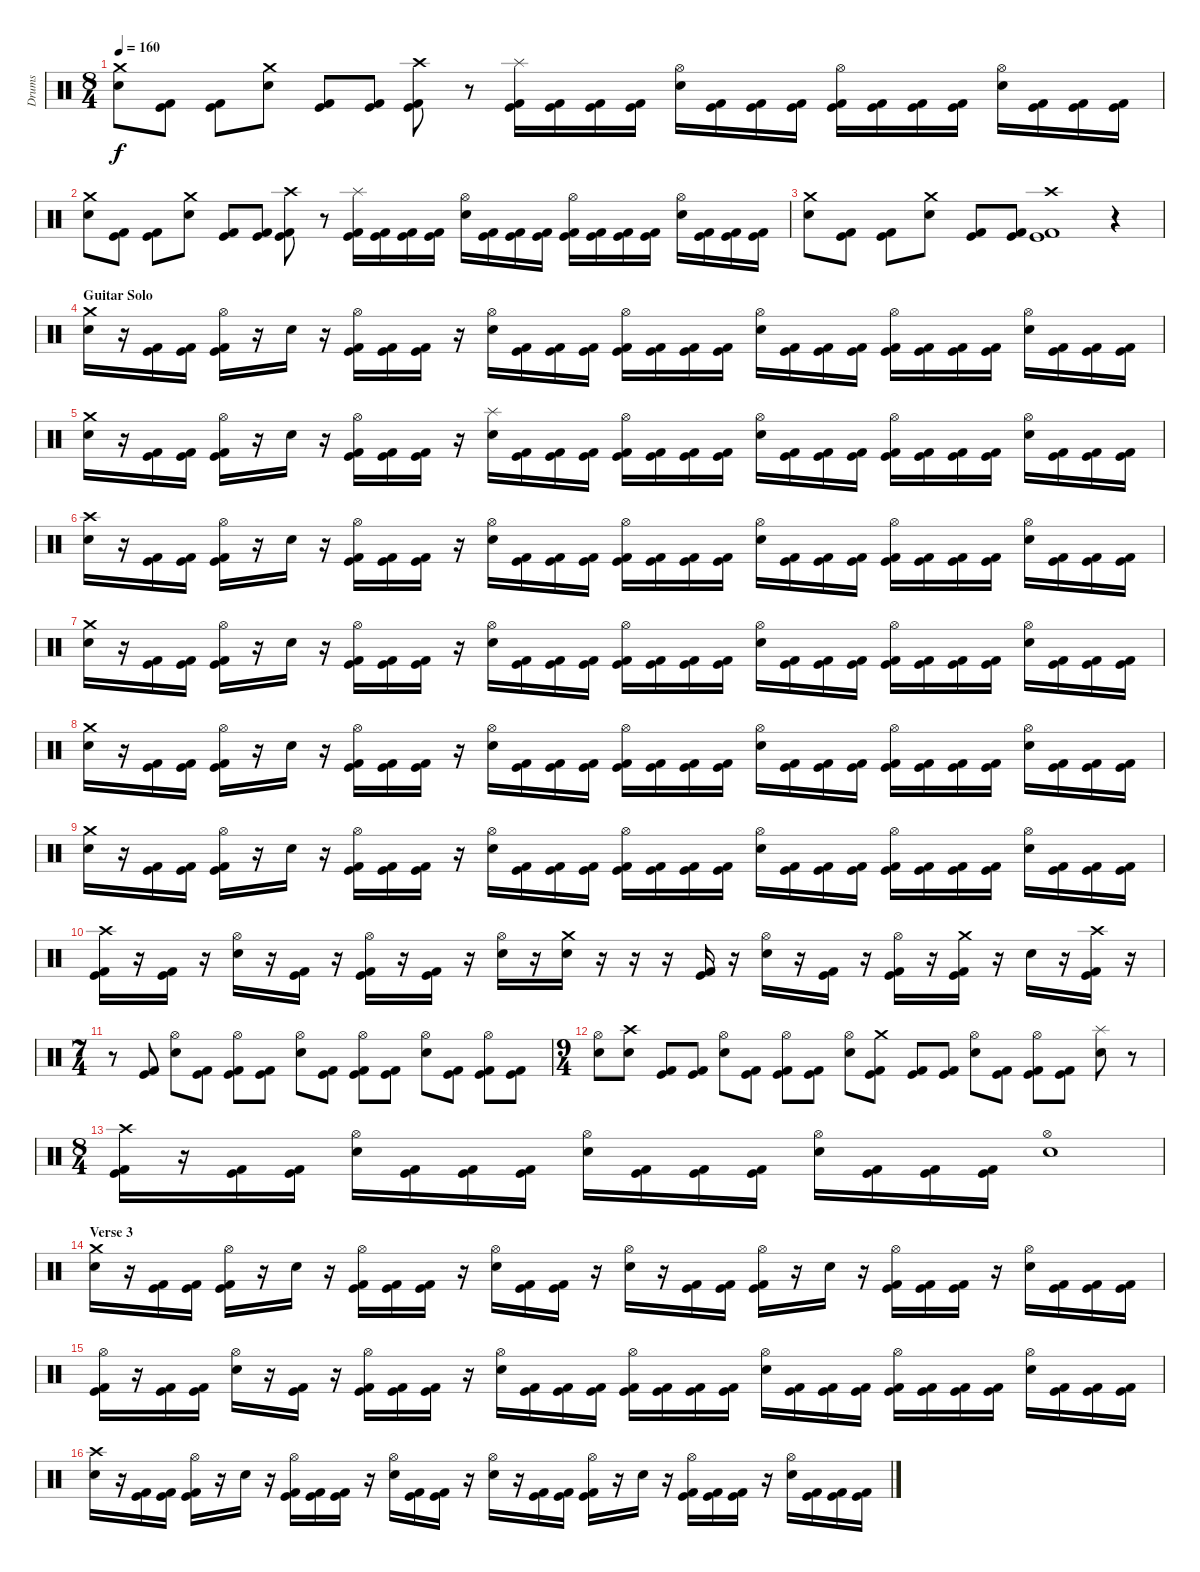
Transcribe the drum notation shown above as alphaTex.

\track ("Drums" "Drums") {instrument percussion}
\staff {score}
\articulation defaults
\ts (8 4)
\tempo 160
\clef neutral
\ks c
("Crash medium (hit)" "Electric Snare (hit)").8{dy f} ("Kick (hit)" "Kick (hit) 2").8 ("Kick (hit)" "Kick (hit) 2").8 ("Crash medium (hit)" "Electric Snare (hit)").8 ("Kick (hit)" "Kick (hit) 2").8 ("Kick (hit)" "Kick (hit) 2").8 ("Crash high (hit)" "Kick (hit)" "Kick (hit) 2").8 r.8 ("Splash (hit)" "Kick (hit)" "Kick (hit) 2").16 ("Kick (hit)" "Kick (hit) 2").16 ("Kick (hit)" "Kick (hit) 2").16 ("Kick (hit)" "Kick (hit) 2").16 ("Hi-Hat (open)" "Electric Snare (hit)").16 ("Kick (hit)" "Kick (hit) 2").16 ("Kick (hit)" "Kick (hit) 2").16 ("Kick (hit)" "Kick (hit) 2").16 ("Hi-Hat (open)" "Kick (hit)" "Kick (hit) 2").16 ("Kick (hit)" "Kick (hit) 2").16 ("Kick (hit)" "Kick (hit) 2").16 ("Kick (hit)" "Kick (hit) 2").16 ("Hi-Hat (open)" "Electric Snare (hit)").16 ("Kick (hit)" "Kick (hit) 2").16 ("Kick (hit)" "Kick (hit) 2").16 ("Kick (hit)" "Kick (hit) 2").16 |
("Crash medium (hit)" "Electric Snare (hit)").8 ("Kick (hit)" "Kick (hit) 2").8 ("Kick (hit)" "Kick (hit) 2").8 ("Crash medium (hit)" "Electric Snare (hit)").8 ("Kick (hit)" "Kick (hit) 2").8 ("Kick (hit)" "Kick (hit) 2").8 ("Crash high (hit)" "Kick (hit)" "Kick (hit) 2").8 r.8 ("Splash (hit)" "Kick (hit)" "Kick (hit) 2").16 ("Kick (hit)" "Kick (hit) 2").16 ("Kick (hit)" "Kick (hit) 2").16 ("Kick (hit)" "Kick (hit) 2").16 ("Hi-Hat (open)" "Electric Snare (hit)").16 ("Kick (hit)" "Kick (hit) 2").16 ("Kick (hit)" "Kick (hit) 2").16 ("Kick (hit)" "Kick (hit) 2").16 ("Hi-Hat (open)" "Kick (hit)" "Kick (hit) 2").16 ("Kick (hit)" "Kick (hit) 2").16 ("Kick (hit)" "Kick (hit) 2").16 ("Kick (hit)" "Kick (hit) 2").16 ("Hi-Hat (open)" "Electric Snare (hit)").16 ("Kick (hit)" "Kick (hit) 2").16 ("Kick (hit)" "Kick (hit) 2").16 ("Kick (hit)" "Kick (hit) 2").16 |
("Crash medium (hit)" "Electric Snare (hit)").8 ("Kick (hit)" "Kick (hit) 2").8 ("Kick (hit)" "Kick (hit) 2").8 ("Crash medium (hit)" "Electric Snare (hit)").8 ("Kick (hit)" "Kick (hit) 2").8 ("Kick (hit)" "Kick (hit) 2").8 ("Crash high (hit)" "Kick (hit)" "Kick (hit) 2").1 r.4 |
\section ("" "Guitar Solo")
("Crash medium (hit)" "Electric Snare (hit)").16 r.16 ("Kick (hit)" "Kick (hit) 2").16 ("Kick (hit)" "Kick (hit) 2").16 ("Hi-Hat (open)" "Kick (hit)" "Kick (hit) 2").16 r.16 "Electric Snare (hit)".16 r.16 ("Hi-Hat (open)" "Kick (hit)" "Kick (hit) 2").16 ("Kick (hit)" "Kick (hit) 2").16 ("Kick (hit)" "Kick (hit) 2").16 r.16 ("Hi-Hat (open)" "Electric Snare (hit)").16 ("Kick (hit)" "Kick (hit) 2").16 ("Kick (hit)" "Kick (hit) 2").16 ("Kick (hit) 2" "Kick (hit)").16 ("Hi-Hat (open)" "Kick (hit) 2" "Kick (hit)").16 ("Kick (hit) 2" "Kick (hit)").16 ("Kick (hit)" "Kick (hit) 2").16 ("Kick (hit)" "Kick (hit) 2").16 ("Hi-Hat (open)" "Electric Snare (hit)").16 ("Kick (hit) 2" "Kick (hit)").16 ("Kick (hit) 2" "Kick (hit)").16 ("Kick (hit) 2" "Kick (hit)").16 ("Hi-Hat (open)" "Kick (hit) 2" "Kick (hit)").16 ("Kick (hit) 2" "Kick (hit)").16 ("Kick (hit)" "Kick (hit) 2").16 ("Kick (hit) 2" "Kick (hit)").16 ("Hi-Hat (open)" "Electric Snare (hit)").16 ("Kick (hit)" "Kick (hit) 2").16 ("Kick (hit)" "Kick (hit) 2").16 ("Kick (hit)" "Kick (hit) 2").16 |
("Crash medium (hit)" "Electric Snare (hit)").16 r.16 ("Kick (hit)" "Kick (hit) 2").16 ("Kick (hit)" "Kick (hit) 2").16 ("Hi-Hat (open)" "Kick (hit)" "Kick (hit) 2").16 r.16 "Electric Snare (hit)".16 r.16 ("Hi-Hat (open)" "Kick (hit)" "Kick (hit) 2").16 ("Kick (hit)" "Kick (hit) 2").16 ("Kick (hit)" "Kick (hit) 2").16 r.16 ("Splash (hit)" "Electric Snare (hit)").16 ("Kick (hit)" "Kick (hit) 2").16 ("Kick (hit)" "Kick (hit) 2").16 ("Kick (hit) 2" "Kick (hit)").16 ("Hi-Hat (open)" "Kick (hit) 2" "Kick (hit)").16 ("Kick (hit) 2" "Kick (hit)").16 ("Kick (hit)" "Kick (hit) 2").16 ("Kick (hit)" "Kick (hit) 2").16 ("Hi-Hat (open)" "Electric Snare (hit)").16 ("Kick (hit) 2" "Kick (hit)").16 ("Kick (hit) 2" "Kick (hit)").16 ("Kick (hit) 2" "Kick (hit)").16 ("Hi-Hat (open)" "Kick (hit) 2" "Kick (hit)").16 ("Kick (hit) 2" "Kick (hit)").16 ("Kick (hit)" "Kick (hit) 2").16 ("Kick (hit) 2" "Kick (hit)").16 ("Hi-Hat (open)" "Electric Snare (hit)").16 ("Kick (hit)" "Kick (hit) 2").16 ("Kick (hit)" "Kick (hit) 2").16 ("Kick (hit)" "Kick (hit) 2").16 |
("Crash high (hit)" "Electric Snare (hit)").16 r.16 ("Kick (hit)" "Kick (hit) 2").16 ("Kick (hit)" "Kick (hit) 2").16 ("Hi-Hat (open)" "Kick (hit)" "Kick (hit) 2").16 r.16 "Electric Snare (hit)".16 r.16 ("Hi-Hat (open)" "Kick (hit)" "Kick (hit) 2").16 ("Kick (hit)" "Kick (hit) 2").16 ("Kick (hit)" "Kick (hit) 2").16 r.16 ("Hi-Hat (open)" "Electric Snare (hit)").16 ("Kick (hit)" "Kick (hit) 2").16 ("Kick (hit)" "Kick (hit) 2").16 ("Kick (hit) 2" "Kick (hit)").16 ("Hi-Hat (open)" "Kick (hit) 2" "Kick (hit)").16 ("Kick (hit) 2" "Kick (hit)").16 ("Kick (hit)" "Kick (hit) 2").16 ("Kick (hit)" "Kick (hit) 2").16 ("Hi-Hat (open)" "Electric Snare (hit)").16 ("Kick (hit) 2" "Kick (hit)").16 ("Kick (hit) 2" "Kick (hit)").16 ("Kick (hit) 2" "Kick (hit)").16 ("Hi-Hat (open)" "Kick (hit) 2" "Kick (hit)").16 ("Kick (hit) 2" "Kick (hit)").16 ("Kick (hit)" "Kick (hit) 2").16 ("Kick (hit) 2" "Kick (hit)").16 ("Hi-Hat (open)" "Electric Snare (hit)").16 ("Kick (hit)" "Kick (hit) 2").16 ("Kick (hit)" "Kick (hit) 2").16 ("Kick (hit)" "Kick (hit) 2").16 |
("Crash medium (hit)" "Electric Snare (hit)").16 r.16 ("Kick (hit)" "Kick (hit) 2").16 ("Kick (hit)" "Kick (hit) 2").16 ("Hi-Hat (open)" "Kick (hit)" "Kick (hit) 2").16 r.16 "Electric Snare (hit)".16 r.16 ("Hi-Hat (open)" "Kick (hit)" "Kick (hit) 2").16 ("Kick (hit)" "Kick (hit) 2").16 ("Kick (hit)" "Kick (hit) 2").16 r.16 ("Hi-Hat (open)" "Electric Snare (hit)").16 ("Kick (hit)" "Kick (hit) 2").16 ("Kick (hit)" "Kick (hit) 2").16 ("Kick (hit) 2" "Kick (hit)").16 ("Hi-Hat (open)" "Kick (hit) 2" "Kick (hit)").16 ("Kick (hit) 2" "Kick (hit)").16 ("Kick (hit)" "Kick (hit) 2").16 ("Kick (hit)" "Kick (hit) 2").16 ("Hi-Hat (open)" "Electric Snare (hit)").16 ("Kick (hit) 2" "Kick (hit)").16 ("Kick (hit) 2" "Kick (hit)").16 ("Kick (hit) 2" "Kick (hit)").16 ("Hi-Hat (open)" "Kick (hit) 2" "Kick (hit)").16 ("Kick (hit) 2" "Kick (hit)").16 ("Kick (hit)" "Kick (hit) 2").16 ("Kick (hit) 2" "Kick (hit)").16 ("Hi-Hat (open)" "Electric Snare (hit)").16 ("Kick (hit)" "Kick (hit) 2").16 ("Kick (hit)" "Kick (hit) 2").16 ("Kick (hit)" "Kick (hit) 2").16 |
("Crash medium (hit)" "Electric Snare (hit)").16 r.16 ("Kick (hit)" "Kick (hit) 2").16 ("Kick (hit)" "Kick (hit) 2").16 ("Hi-Hat (open)" "Kick (hit)" "Kick (hit) 2").16 r.16 "Electric Snare (hit)".16 r.16 ("Hi-Hat (open)" "Kick (hit)" "Kick (hit) 2").16 ("Kick (hit)" "Kick (hit) 2").16 ("Kick (hit)" "Kick (hit) 2").16 r.16 ("Hi-Hat (open)" "Electric Snare (hit)").16 ("Kick (hit)" "Kick (hit) 2").16 ("Kick (hit)" "Kick (hit) 2").16 ("Kick (hit) 2" "Kick (hit)").16 ("Hi-Hat (open)" "Kick (hit) 2" "Kick (hit)").16 ("Kick (hit) 2" "Kick (hit)").16 ("Kick (hit)" "Kick (hit) 2").16 ("Kick (hit)" "Kick (hit) 2").16 ("Hi-Hat (open)" "Electric Snare (hit)").16 ("Kick (hit) 2" "Kick (hit)").16 ("Kick (hit) 2" "Kick (hit)").16 ("Kick (hit) 2" "Kick (hit)").16 ("Hi-Hat (open)" "Kick (hit) 2" "Kick (hit)").16 ("Kick (hit) 2" "Kick (hit)").16 ("Kick (hit)" "Kick (hit) 2").16 ("Kick (hit) 2" "Kick (hit)").16 ("Hi-Hat (open)" "Electric Snare (hit)").16 ("Kick (hit)" "Kick (hit) 2").16 ("Kick (hit)" "Kick (hit) 2").16 ("Kick (hit)" "Kick (hit) 2").16 |
("Crash medium (hit)" "Electric Snare (hit)").16 r.16 ("Kick (hit)" "Kick (hit) 2").16 ("Kick (hit)" "Kick (hit) 2").16 ("Hi-Hat (open)" "Kick (hit)" "Kick (hit) 2").16 r.16 "Electric Snare (hit)".16 r.16 ("Hi-Hat (open)" "Kick (hit)" "Kick (hit) 2").16 ("Kick (hit)" "Kick (hit) 2").16 ("Kick (hit)" "Kick (hit) 2").16 r.16 ("Hi-Hat (open)" "Electric Snare (hit)").16 ("Kick (hit)" "Kick (hit) 2").16 ("Kick (hit)" "Kick (hit) 2").16 ("Kick (hit) 2" "Kick (hit)").16 ("Hi-Hat (open)" "Kick (hit) 2" "Kick (hit)").16 ("Kick (hit) 2" "Kick (hit)").16 ("Kick (hit)" "Kick (hit) 2").16 ("Kick (hit)" "Kick (hit) 2").16 ("Hi-Hat (open)" "Electric Snare (hit)").16 ("Kick (hit) 2" "Kick (hit)").16 ("Kick (hit) 2" "Kick (hit)").16 ("Kick (hit) 2" "Kick (hit)").16 ("Hi-Hat (open)" "Kick (hit) 2" "Kick (hit)").16 ("Kick (hit) 2" "Kick (hit)").16 ("Kick (hit)" "Kick (hit) 2").16 ("Kick (hit) 2" "Kick (hit)").16 ("Hi-Hat (open)" "Electric Snare (hit)").16 ("Kick (hit)" "Kick (hit) 2").16 ("Kick (hit)" "Kick (hit) 2").16 ("Kick (hit)" "Kick (hit) 2").16 |
("Crash high (hit)" "Kick (hit)" "Kick (hit) 2").16 r.16 ("Kick (hit)" "Kick (hit) 2").16 r.16 ("Hi-Hat (open)" "Electric Snare (hit)").16 r.16 ("Kick (hit)" "Kick (hit) 2").16 r.16 ("Hi-Hat (open)" "Kick (hit)" "Kick (hit) 2").16 r.16 ("Kick (hit)" "Kick (hit) 2").16 r.16 ("Hi-Hat (open)" "Electric Snare (hit)").16 r.16 ("Crash medium (hit)" "Electric Snare (hit)").16 r.16 r.16 r.16 ("Kick (hit) 2" "Kick (hit)").16 r.16 ("Hi-Hat (open)" "Electric Snare (hit)").16 r.16 ("Kick (hit)" "Kick (hit) 2").16 r.16 ("Hi-Hat (open)" "Kick (hit)" "Kick (hit) 2").16 r.16 ("Crash medium (hit)" "Kick (hit)" "Kick (hit) 2").16 r.16 "Electric Snare (hit)".16 r.16 ("Crash high (hit)" "Kick (hit) 2" "Kick (hit)").16 r.16 |
\ts (7 4)
r.8 ("Kick (hit)" "Kick (hit) 2").8 ("Hi-Hat (open)" "Electric Snare (hit)").8 ("Kick (hit)" "Kick (hit) 2").8 ("Hi-Hat (open)" "Kick (hit)" "Kick (hit) 2").8 ("Kick (hit)" "Kick (hit) 2").8 ("Hi-Hat (open)" "Electric Snare (hit)").8 ("Kick (hit)" "Kick (hit) 2").8 ("Hi-Hat (open)" "Kick (hit)" "Kick (hit) 2").8 ("Kick (hit)" "Kick (hit) 2").8 ("Hi-Hat (open)" "Electric Snare (hit)").8 ("Kick (hit)" "Kick (hit) 2").8 ("Hi-Hat (open)" "Kick (hit)" "Kick (hit) 2").8 ("Kick (hit)" "Kick (hit) 2").8 |
\ts (9 4)
("Hi-Hat (open)" "Electric Snare (hit)").8 ("Crash high (hit)" "Electric Snare (hit)").8 ("Kick (hit)" "Kick (hit) 2").8 ("Kick (hit)" "Kick (hit) 2").8 ("Hi-Hat (open)" "Electric Snare (hit)").8 ("Kick (hit)" "Kick (hit) 2").8 ("Hi-Hat (open)" "Kick (hit)" "Kick (hit) 2").8 ("Kick (hit)" "Kick (hit) 2").8 ("Hi-Hat (open)" "Electric Snare (hit)").8 ("Crash medium (hit)" "Kick (hit)" "Kick (hit) 2").8 ("Kick (hit)" "Kick (hit) 2").8 ("Kick (hit)" "Kick (hit) 2").8 ("Hi-Hat (open)" "Electric Snare (hit)").8 ("Kick (hit)" "Kick (hit) 2").8 ("Hi-Hat (open)" "Kick (hit)" "Kick (hit) 2").8 ("Kick (hit)" "Kick (hit) 2").8 ("Splash (hit)" "Electric Snare (hit)").8 r.8 |
\ts (8 4)
("Crash high (hit)" "Kick (hit)" "Kick (hit) 2").16 r.16 ("Kick (hit)" "Kick (hit) 2").16 ("Kick (hit)" "Kick (hit) 2").16 ("Hi-Hat (open)" "Electric Snare (hit)").16 ("Kick (hit)" "Kick (hit) 2").16 ("Kick (hit)" "Kick (hit) 2").16 ("Kick (hit)" "Kick (hit) 2").16 ("Hi-Hat (open)" "Electric Snare (hit)").16 ("Kick (hit)" "Kick (hit) 2").16 ("Kick (hit)" "Kick (hit) 2").16 ("Kick (hit)" "Kick (hit) 2").16 ("Hi-Hat (open)" "Electric Snare (hit)").16 ("Kick (hit)" "Kick (hit) 2").16 ("Kick (hit)" "Kick (hit) 2").16 ("Kick (hit)" "Kick (hit) 2").16 ("Hi-Hat (open)" "Electric Snare (hit)").1 |
\section ("" "Verse 3")
("Crash medium (hit)" "Electric Snare (hit)").16 r.16 ("Kick (hit)" "Kick (hit) 2").16 ("Kick (hit)" "Kick (hit) 2").16 ("Hi-Hat (open)" "Kick (hit)" "Kick (hit) 2").16 r.16 "Electric Snare (hit)".16 r.16 ("Hi-Hat (open)" "Kick (hit)" "Kick (hit) 2").16 ("Kick (hit)" "Kick (hit) 2").16 ("Kick (hit)" "Kick (hit) 2").16 r.16 ("Hi-Hat (open)" "Electric Snare (hit)").16 ("Kick (hit)" "Kick (hit) 2").16 ("Kick (hit)" "Kick (hit) 2").16 r.16 ("Hi-Hat (open)" "Electric Snare (hit)").16 r.16 ("Kick (hit)" "Kick (hit) 2").16 ("Kick (hit)" "Kick (hit) 2").16 ("Hi-Hat (open)" "Kick (hit)" "Kick (hit) 2").16 r.16 "Electric Snare (hit)".16 r.16 ("Hi-Hat (open)" "Kick (hit)" "Kick (hit) 2").16 ("Kick (hit)" "Kick (hit) 2").16 ("Kick (hit)" "Kick (hit) 2").16 r.16 ("Hi-Hat (open)" "Electric Snare (hit)").16 ("Kick (hit)" "Kick (hit) 2").16 ("Kick (hit)" "Kick (hit) 2").16 ("Kick (hit)" "Kick (hit) 2").16 |
("Hi-Hat (open)" "Kick (hit)" "Kick (hit) 2").16 r.16 ("Kick (hit)" "Kick (hit) 2").16 ("Kick (hit)" "Kick (hit) 2").16 ("Hi-Hat (open)" "Electric Snare (hit)").16 r.16 ("Kick (hit)" "Kick (hit) 2").16 r.16 ("Hi-Hat (open)" "Kick (hit)" "Kick (hit) 2").16 ("Kick (hit)" "Kick (hit) 2").16 ("Kick (hit)" "Kick (hit) 2").16 r.16 ("Hi-Hat (open)" "Electric Snare (hit)").16 ("Kick (hit)" "Kick (hit) 2").16 ("Kick (hit)" "Kick (hit) 2").16 ("Kick (hit)" "Kick (hit) 2").16 ("Hi-Hat (open)" "Kick (hit)" "Kick (hit) 2").16 ("Kick (hit)" "Kick (hit) 2").16 ("Kick (hit)" "Kick (hit) 2").16 ("Kick (hit)" "Kick (hit) 2").16 ("Hi-Hat (open)" "Electric Snare (hit)").16 ("Kick (hit)" "Kick (hit) 2").16 ("Kick (hit)" "Kick (hit) 2").16 ("Kick (hit)" "Kick (hit) 2").16 ("Hi-Hat (open)" "Kick (hit)" "Kick (hit) 2").16 ("Kick (hit)" "Kick (hit) 2").16 ("Kick (hit)" "Kick (hit) 2").16 ("Kick (hit)" "Kick (hit) 2").16 ("Hi-Hat (open)" "Electric Snare (hit)").16 ("Kick (hit)" "Kick (hit) 2").16 ("Kick (hit)" "Kick (hit) 2").16 ("Kick (hit)" "Kick (hit) 2").16 |
("Crash high (hit)" "Electric Snare (hit)").16 r.16 ("Kick (hit)" "Kick (hit) 2").16 ("Kick (hit)" "Kick (hit) 2").16 ("Hi-Hat (open)" "Kick (hit)" "Kick (hit) 2").16 r.16 "Electric Snare (hit)".16 r.16 ("Hi-Hat (open)" "Kick (hit)" "Kick (hit) 2").16 ("Kick (hit)" "Kick (hit) 2").16 ("Kick (hit)" "Kick (hit) 2").16 r.16 ("Hi-Hat (open)" "Electric Snare (hit)").16 ("Kick (hit)" "Kick (hit) 2").16 ("Kick (hit)" "Kick (hit) 2").16 r.16 ("Hi-Hat (open)" "Electric Snare (hit)").16 r.16 ("Kick (hit)" "Kick (hit) 2").16 ("Kick (hit)" "Kick (hit) 2").16 ("Hi-Hat (open)" "Kick (hit)" "Kick (hit) 2").16 r.16 "Electric Snare (hit)".16 r.16 ("Hi-Hat (open)" "Kick (hit)" "Kick (hit) 2").16 ("Kick (hit)" "Kick (hit) 2").16 ("Kick (hit)" "Kick (hit) 2").16 r.16 ("Hi-Hat (open)" "Electric Snare (hit)").16 ("Kick (hit)" "Kick (hit) 2").16 ("Kick (hit)" "Kick (hit) 2").16 ("Kick (hit)" "Kick (hit) 2").16
